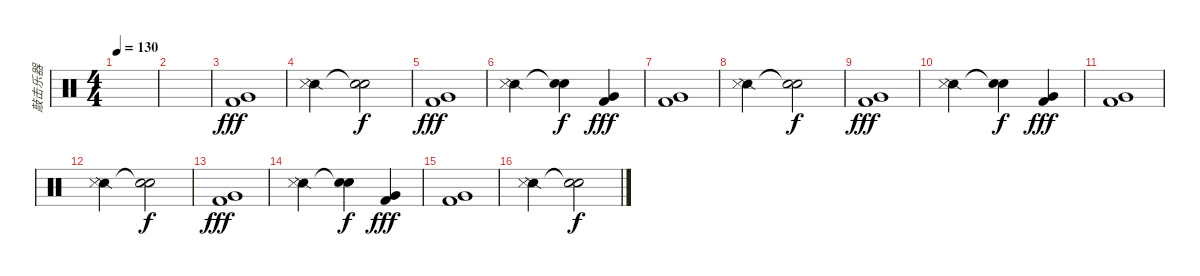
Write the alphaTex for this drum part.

\track ("敲击乐器" "敲击乐器") {instrument percussion}
\staff {score}
\articulation defaults
\ts (4 4)
\tempo 130
\clef neutral
\ks c
|
|
("Very Low Tom (hit)" "Kick (hit) 2").1{dy fff} |
("Snare (side stick) 2" "Metronome (hit)").2 ("Snare (hit)"{t} "Snare (hit)"{t}).2{dy f} |
("Very Low Tom (hit)" "Kick (hit) 2").1{dy fff} |
("Snare (side stick) 2" "Metronome (hit)").2 ("Snare (hit)"{t} "Snare (hit)"{t}).4{dy f} ("Very Low Tom (hit)" "Kick (hit) 2").4{dy fff} |
("Very Low Tom (hit)" "Kick (hit) 2").1 |
("Snare (side stick) 2" "Metronome (hit)").2 ("Snare (hit)"{t} "Snare (hit)"{t}).2{dy f} |
("Very Low Tom (hit)" "Kick (hit) 2").1{dy fff} |
("Snare (side stick) 2" "Metronome (hit)").2 ("Snare (hit)"{t} "Snare (hit)"{t}).4{dy f} ("Very Low Tom (hit)" "Kick (hit) 2").4{dy fff} |
("Very Low Tom (hit)" "Kick (hit) 2").1 |
("Snare (side stick) 2" "Metronome (hit)").2 ("Snare (hit)"{t} "Snare (hit)"{t}).2{dy f} |
("Very Low Tom (hit)" "Kick (hit) 2").1{dy fff} |
("Snare (side stick) 2" "Metronome (hit)").2 ("Snare (hit)"{t} "Snare (hit)"{t}).4{dy f} ("Very Low Tom (hit)" "Kick (hit) 2").4{dy fff} |
("Very Low Tom (hit)" "Kick (hit) 2").1 |
("Snare (side stick) 2" "Metronome (hit)").2 ("Snare (hit)"{t} "Snare (hit)"{t}).2{dy f}
